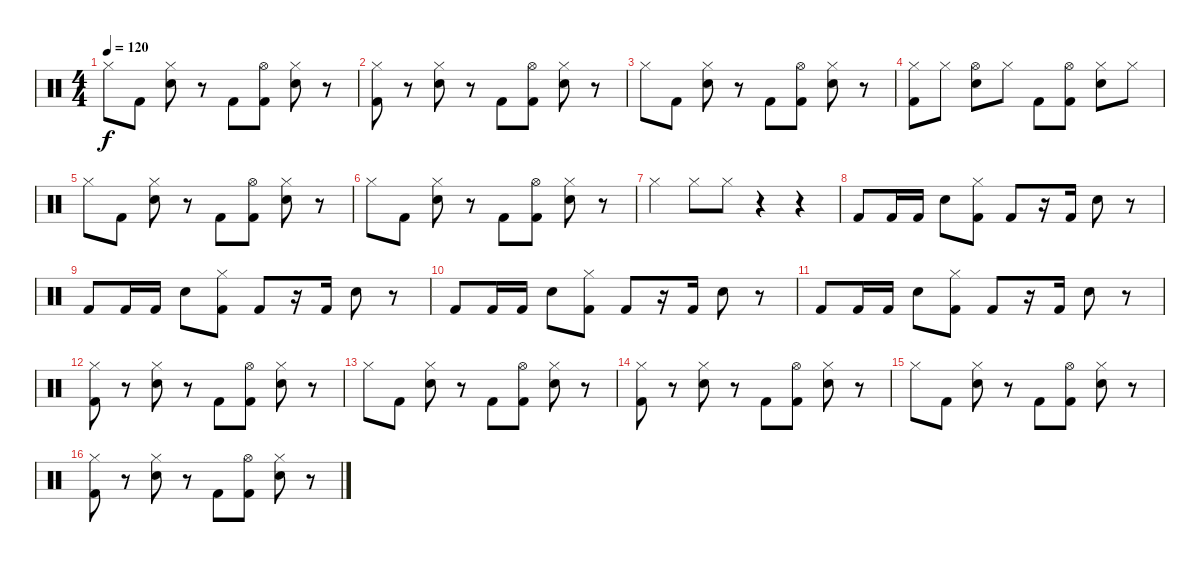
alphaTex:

\track "" {instrument percussion}
\staff {score}
\articulation defaults
\ts (4 4)
\tempo 120
\clef neutral
\ks c "Hi-Hat (closed)".8{dy f} "Kick (hit) 2".8
("Hi-Hat (closed)" "Snare (hit) 2").8 r.8 "Kick (hit) 2".8 ("Hi-Hat (open)" "Kick (hit) 2").8 ("Hi-Hat (closed)" "Snare (hit) 2").8 r.8 |
("Hi-Hat (closed)" "Kick (hit) 2").8 r.8 ("Hi-Hat (closed)" "Snare (hit) 2").8 r.8 "Kick (hit) 2".8 ("Hi-Hat (open)" "Kick (hit) 2").8 ("Hi-Hat (closed)" "Snare (hit) 2").8 r.8 |
"Hi-Hat (closed)".8 "Kick (hit) 2".8 ("Hi-Hat (closed)" "Snare (hit) 2").8 r.8 "Kick (hit) 2".8 ("Hi-Hat (open)" "Kick (hit) 2").8 ("Hi-Hat (closed)" "Snare (hit) 2").8 r.8 |
("Hi-Hat (closed)" "Kick (hit) 2").8 "Hi-Hat (closed)".8 ("Hi-Hat (open)" "Snare (hit) 2").8 "Hi-Hat (closed)".8 "Kick (hit) 2".8 ("Hi-Hat (open)" "Kick (hit) 2").8 ("Hi-Hat (closed)" "Snare (hit) 2").8 "Hi-Hat (closed)".8 |
"Hi-Hat (closed)".8 "Kick (hit) 2".8 ("Hi-Hat (closed)" "Snare (hit) 2").8 r.8 "Kick (hit) 2".8 ("Hi-Hat (open)" "Kick (hit) 2").8 ("Hi-Hat (closed)" "Snare (hit) 2").8 r.8 |
"Hi-Hat (closed)".8 "Kick (hit) 2".8 ("Hi-Hat (closed)" "Snare (hit) 2").8 r.8 "Kick (hit) 2".8 ("Hi-Hat (open)" "Kick (hit) 2").8 ("Hi-Hat (closed)" "Snare (hit) 2").8 r.8 |
"Hi-Hat (closed)".4{volume 16} "Hi-Hat (closed)".8 "Hi-Hat (closed)".8 r.4 r.4 |
"Kick (hit) 2".8 "Kick (hit) 2".16 "Kick (hit) 2".16 "Electric Snare (hit)".8 ("Kick (hit) 2" "Hi-Hat (closed)").8 "Kick (hit) 2".8 r.16 "Kick (hit) 2".16 "Electric Snare (hit)".8 r.8 |
"Kick (hit) 2".8 "Kick (hit) 2".16 "Kick (hit) 2".16 "Electric Snare (hit)".8 ("Kick (hit) 2" "Hi-Hat (closed)").8 "Kick (hit) 2".8 r.16 "Kick (hit) 2".16 "Electric Snare (hit)".8 r.8 |
"Kick (hit) 2".8 "Kick (hit) 2".16 "Kick (hit) 2".16 "Electric Snare (hit)".8 ("Kick (hit) 2" "Hi-Hat (closed)").8 "Kick (hit) 2".8 r.16 "Kick (hit) 2".16 "Electric Snare (hit)".8 r.8 |
"Kick (hit) 2".8{volume 10} "Kick (hit) 2".16 "Kick (hit) 2".16 "Electric Snare (hit)".8 ("Kick (hit) 2" "Hi-Hat (closed)").8 "Kick (hit) 2".8 r.16 "Kick (hit) 2".16 "Electric Snare (hit)".8 r.8 |
("Hi-Hat (closed)" "Kick (hit) 2").8 r.8 ("Hi-Hat (closed)" "Snare (hit) 2").8 r.8 "Kick (hit) 2".8 ("Hi-Hat (open)" "Kick (hit) 2").8 ("Hi-Hat (closed)" "Snare (hit) 2").8 r.8 |
"Hi-Hat (closed)".8 "Kick (hit) 2".8 ("Hi-Hat (closed)" "Snare (hit) 2").8 r.8 "Kick (hit) 2".8 ("Hi-Hat (open)" "Kick (hit) 2").8 ("Hi-Hat (closed)" "Snare (hit) 2").8 r.8 |
("Hi-Hat (closed)" "Kick (hit) 2").8 r.8 ("Hi-Hat (closed)" "Snare (hit) 2").8 r.8 "Kick (hit) 2".8 ("Hi-Hat (open)" "Kick (hit) 2").8 ("Hi-Hat (closed)" "Snare (hit) 2").8 r.8 |
"Hi-Hat (closed)".8 "Kick (hit) 2".8 ("Hi-Hat (closed)" "Snare (hit) 2").8 r.8 "Kick (hit) 2".8 ("Hi-Hat (open)" "Kick (hit) 2").8 ("Hi-Hat (closed)" "Snare (hit) 2").8 r.8 |
("Hi-Hat (closed)" "Kick (hit) 2").8 r.8 ("Hi-Hat (closed)" "Snare (hit) 2").8 r.8 "Kick (hit) 2".8 ("Hi-Hat (open)" "Kick (hit) 2").8 ("Hi-Hat (closed)" "Snare (hit) 2").8 r.8
